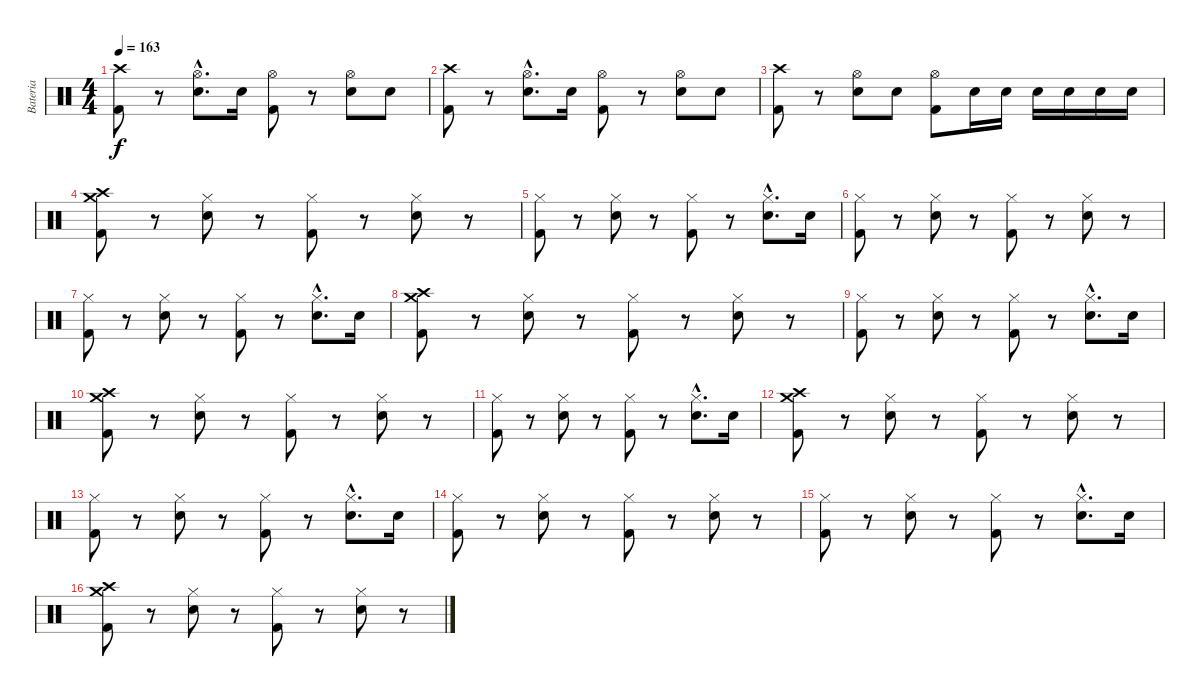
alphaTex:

\track ("Bateria" "Bateria") {instrument percussion}
\staff {score}
\articulation defaults
\ts (4 4)
\tempo 163
\clef neutral
\ks c
("Crash high (hit)" "Kick (hit) 2").8{dy f} r.8 ("Hi-Hat (open)"{hac} "Snare (hit) 2"{hac}).8{d} "Snare (hit) 2".16 ("Hi-Hat (open)" "Kick (hit) 2").8 r.8 ("Hi-Hat (open)" "Snare (hit) 2").8 "Snare (hit) 2".8 |
("Crash high (hit)" "Kick (hit) 2").8 r.8 ("Hi-Hat (open)"{hac} "Snare (hit) 2"{hac}).8{d} "Snare (hit) 2".16 ("Hi-Hat (open)" "Kick (hit) 2").8 r.8 ("Hi-Hat (open)" "Snare (hit) 2").8 "Snare (hit) 2".8 |
("Crash high (hit)" "Kick (hit) 2").8 r.8 ("Hi-Hat (open)" "Snare (hit) 2").8 "Snare (hit) 2".8 ("Hi-Hat (open)" "Kick (hit) 2").8 "Snare (hit) 2".16 "Snare (hit) 2".16 "Snare (hit) 2".16 "Snare (hit) 2".16 "Snare (hit) 2".16 "Snare (hit) 2".16 |
("Crash high (hit)" "Crash medium (hit)" "Kick (hit) 2").8 r.8 ("Hi-Hat (closed)" "Snare (hit) 2").8 r.8 ("Hi-Hat (closed)" "Kick (hit) 2").8 r.8 ("Hi-Hat (closed)" "Snare (hit) 2").8 r.8 |
("Hi-Hat (closed)" "Kick (hit) 2").8 r.8 ("Hi-Hat (closed)" "Snare (hit) 2").8 r.8 ("Hi-Hat (closed)" "Kick (hit) 2").8 r.8 ("Hi-Hat (closed)"{hac} "Snare (hit) 2"{hac}).8{d} "Snare (hit) 2".16 |
("Hi-Hat (closed)" "Kick (hit) 2").8 r.8 ("Hi-Hat (closed)" "Snare (hit) 2").8 r.8 ("Hi-Hat (closed)" "Kick (hit) 2").8 r.8 ("Hi-Hat (closed)" "Snare (hit) 2").8 r.8 |
("Hi-Hat (closed)" "Kick (hit) 2").8 r.8 ("Hi-Hat (closed)" "Snare (hit) 2").8 r.8 ("Hi-Hat (closed)" "Kick (hit) 2").8 r.8 ("Hi-Hat (closed)"{hac} "Snare (hit) 2"{hac}).8{d} "Snare (hit) 2".16 |
("Crash high (hit)" "Crash medium (hit)" "Kick (hit) 2").8 r.8 ("Hi-Hat (closed)" "Snare (hit) 2").8 r.8 ("Hi-Hat (closed)" "Kick (hit) 2").8 r.8 ("Hi-Hat (closed)" "Snare (hit) 2").8 r.8 |
("Hi-Hat (closed)" "Kick (hit) 2").8 r.8 ("Hi-Hat (closed)" "Snare (hit) 2").8 r.8 ("Hi-Hat (closed)" "Kick (hit) 2").8 r.8 ("Hi-Hat (closed)"{hac} "Snare (hit) 2"{hac}).8{d} "Snare (hit) 2".16 |
("Crash high (hit)" "Crash medium (hit)" "Kick (hit) 2").8 r.8 ("Hi-Hat (closed)" "Snare (hit) 2").8 r.8 ("Hi-Hat (closed)" "Kick (hit) 2").8 r.8 ("Hi-Hat (closed)" "Snare (hit) 2").8 r.8 |
("Hi-Hat (closed)" "Kick (hit) 2").8 r.8 ("Hi-Hat (closed)" "Snare (hit) 2").8 r.8 ("Hi-Hat (closed)" "Kick (hit) 2").8 r.8 ("Hi-Hat (closed)"{hac} "Snare (hit) 2"{hac}).8{d} "Snare (hit) 2".16 |
("Crash high (hit)" "Crash medium (hit)" "Kick (hit) 2").8 r.8 ("Hi-Hat (closed)" "Snare (hit) 2").8 r.8 ("Hi-Hat (closed)" "Kick (hit) 2").8 r.8 ("Hi-Hat (closed)" "Snare (hit) 2").8 r.8 |
("Hi-Hat (closed)" "Kick (hit) 2").8 r.8 ("Hi-Hat (closed)" "Snare (hit) 2").8 r.8 ("Hi-Hat (closed)" "Kick (hit) 2").8 r.8 ("Hi-Hat (closed)"{hac} "Snare (hit) 2"{hac}).8{d} "Snare (hit) 2".16 |
("Hi-Hat (closed)" "Kick (hit) 2").8 r.8 ("Hi-Hat (closed)" "Snare (hit) 2").8 r.8 ("Hi-Hat (closed)" "Kick (hit) 2").8 r.8 ("Hi-Hat (closed)" "Snare (hit) 2").8 r.8 |
("Hi-Hat (closed)" "Kick (hit) 2").8 r.8 ("Hi-Hat (closed)" "Snare (hit) 2").8 r.8 ("Hi-Hat (closed)" "Kick (hit) 2").8 r.8 ("Hi-Hat (closed)"{hac} "Snare (hit) 2"{hac}).8{d} "Snare (hit) 2".16 |
("Crash high (hit)" "Crash medium (hit)" "Kick (hit) 2").8 r.8 ("Hi-Hat (closed)" "Snare (hit) 2").8 r.8 ("Hi-Hat (closed)" "Kick (hit) 2").8 r.8 ("Hi-Hat (closed)" "Snare (hit) 2").8 r.8
